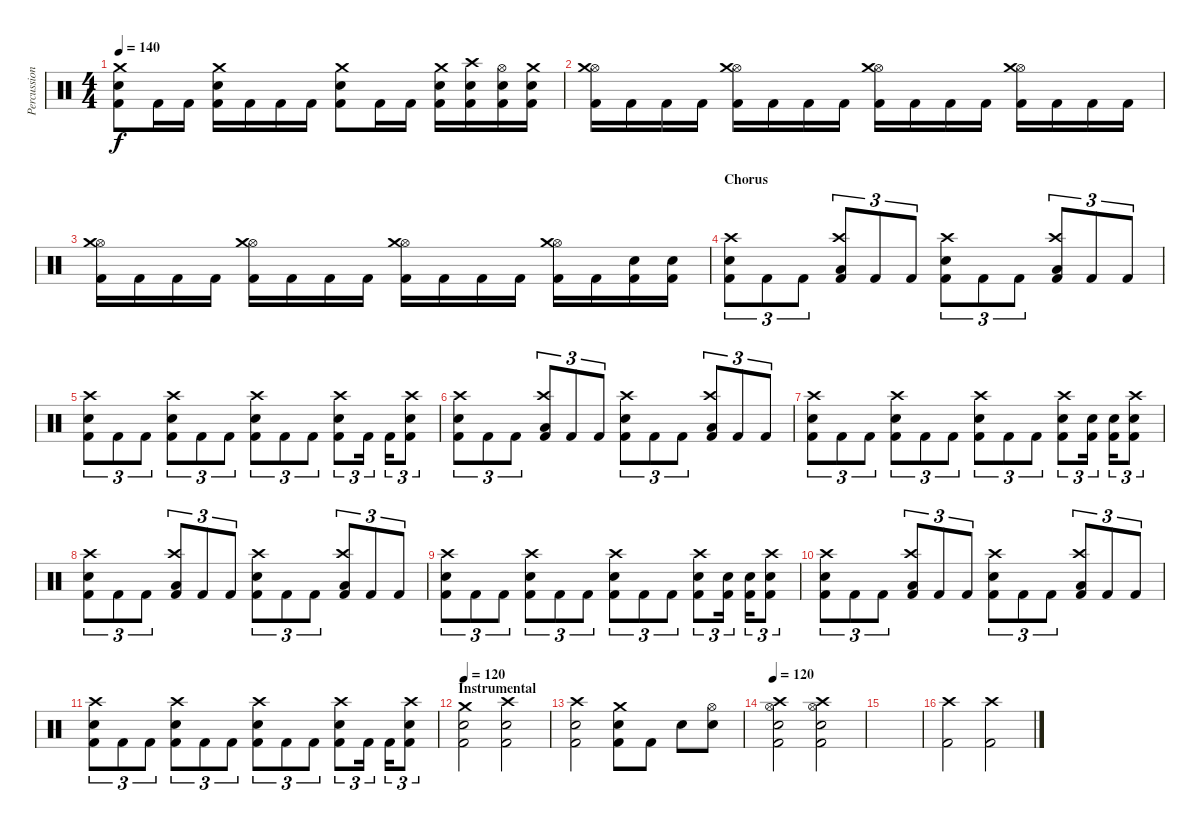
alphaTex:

\track ("Percussion" "Percussion") {instrument percussion}
\staff {score}
\articulation defaults
\ts (4 4)
\tempo 140
\clef neutral
\ks c
("Crash medium (hit)" "Snare (hit) 2" "Kick (hit) 2").8{dy f} "Kick (hit) 2".16 "Kick (hit) 2".16 ("Crash medium (hit)" "Snare (hit) 2" "Kick (hit) 2").16 "Kick (hit) 2".16 "Kick (hit) 2".16 "Kick (hit) 2".16 ("Crash medium (hit)" "Snare (hit) 2" "Kick (hit) 2").8 "Kick (hit) 2".16 "Kick (hit) 2".16 ("Crash medium (hit)" "Snare (hit) 2" "Kick (hit) 2").16 ("Crash high (hit)" "Snare (hit) 2" "Kick (hit) 2").16 ("Hi-Hat (open)" "Snare (hit) 2" "Kick (hit) 2").16 ("Crash medium (hit)" "Snare (hit) 2" "Kick (hit) 2").16 |
("Hi-Hat (open)" "Crash medium (hit)" "Kick (hit) 2").16 "Kick (hit) 2".16 "Kick (hit) 2".16 "Kick (hit) 2".16 ("Hi-Hat (open)" "Crash medium (hit)" "Kick (hit) 2").16 "Kick (hit) 2".16 "Kick (hit) 2".16 "Kick (hit) 2".16 ("Hi-Hat (open)" "Crash medium (hit)" "Kick (hit) 2").16 "Kick (hit) 2".16 "Kick (hit) 2".16 "Kick (hit) 2".16 ("Hi-Hat (open)" "Crash medium (hit)" "Kick (hit) 2").16 "Kick (hit) 2".16 "Kick (hit) 2".16 "Kick (hit) 2".16 |
("Hi-Hat (open)" "Crash medium (hit)" "Kick (hit) 2").16 "Kick (hit) 2".16 "Kick (hit) 2".16 "Kick (hit) 2".16 ("Hi-Hat (open)" "Crash medium (hit)" "Kick (hit) 2").16 "Kick (hit) 2".16 "Kick (hit) 2".16 "Kick (hit) 2".16 ("Hi-Hat (open)" "Crash medium (hit)" "Kick (hit) 2").16 "Kick (hit) 2".16 "Kick (hit) 2".16 "Kick (hit) 2".16 ("Hi-Hat (open)" "Crash medium (hit)" "Kick (hit) 2").16 "Kick (hit) 2".16 ("Snare (hit) 2" "Kick (hit) 2").16 ("Snare (hit) 2" "Kick (hit) 2").16 |
\section ("" "Chorus")
("Crash high (hit)" "Snare (hit) 2" "Kick (hit) 2").8{tu (3 2)} "Kick (hit) 2".8{tu (3 2)} "Kick (hit) 2".8{tu (3 2)} ("Crash high (hit)" "Low Floor Tom (hit)" "Kick (hit) 2").8{tu (3 2)} "Kick (hit) 2".8{tu (3 2)} "Kick (hit) 2".8{tu (3 2)} ("Crash high (hit)" "Snare (hit) 2" "Kick (hit) 2").8{tu (3 2)} "Kick (hit) 2".8{tu (3 2)} "Kick (hit) 2".8{tu (3 2)} ("Crash high (hit)" "Low Floor Tom (hit)" "Kick (hit) 2").8{tu (3 2)} "Kick (hit) 2".8{tu (3 2)} "Kick (hit) 2".8{tu (3 2)} |
("Crash high (hit)" "Snare (hit) 2" "Kick (hit) 2").8{tu (3 2)} "Kick (hit) 2".8{tu (3 2)} "Kick (hit) 2".8{tu (3 2)} ("Crash high (hit)" "Snare (hit) 2" "Kick (hit) 2").8{tu (3 2)} "Kick (hit) 2".8{tu (3 2)} "Kick (hit) 2".8{tu (3 2)} ("Crash high (hit)" "Snare (hit) 2" "Kick (hit) 2").8{tu (3 2)} "Kick (hit) 2".8{tu (3 2)} "Kick (hit) 2".8{tu (3 2)} ("Crash high (hit)" "Snare (hit) 2" "Kick (hit) 2").8{tu (3 2)} "Kick (hit) 2".16{tu (3 2)} "Kick (hit) 2".16{tu (3 2)} ("Crash high (hit)" "Snare (hit) 2" "Kick (hit) 2").8{tu (3 2)} |
("Crash high (hit)" "Snare (hit) 2" "Kick (hit) 2").8{tu (3 2)} "Kick (hit) 2".8{tu (3 2)} "Kick (hit) 2".8{tu (3 2)} ("Crash high (hit)" "Low Floor Tom (hit)" "Kick (hit) 2").8{tu (3 2)} "Kick (hit) 2".8{tu (3 2)} "Kick (hit) 2".8{tu (3 2)} ("Crash high (hit)" "Snare (hit) 2" "Kick (hit) 2").8{tu (3 2)} "Kick (hit) 2".8{tu (3 2)} "Kick (hit) 2".8{tu (3 2)} ("Crash high (hit)" "Low Floor Tom (hit)" "Kick (hit) 2").8{tu (3 2)} "Kick (hit) 2".8{tu (3 2)} "Kick (hit) 2".8{tu (3 2)} |
("Crash high (hit)" "Snare (hit) 2" "Kick (hit) 2").8{tu (3 2)} "Kick (hit) 2".8{tu (3 2)} "Kick (hit) 2".8{tu (3 2)} ("Crash high (hit)" "Snare (hit) 2" "Kick (hit) 2").8{tu (3 2)} "Kick (hit) 2".8{tu (3 2)} "Kick (hit) 2".8{tu (3 2)} ("Crash high (hit)" "Snare (hit) 2" "Kick (hit) 2").8{tu (3 2)} "Kick (hit) 2".8{tu (3 2)} "Kick (hit) 2".8{tu (3 2)} ("Crash high (hit)" "Snare (hit) 2" "Kick (hit) 2").8{tu (3 2)} ("Snare (hit) 2" "Kick (hit) 2").16{tu (3 2)} ("Snare (hit) 2" "Kick (hit) 2").16{tu (3 2)} ("Crash high (hit)" "Snare (hit) 2" "Kick (hit) 2").8{tu (3 2)} |
("Crash high (hit)" "Snare (hit) 2" "Kick (hit) 2").8{tu (3 2)} "Kick (hit) 2".8{tu (3 2)} "Kick (hit) 2".8{tu (3 2)} ("Crash high (hit)" "Low Floor Tom (hit)" "Kick (hit) 2").8{tu (3 2)} "Kick (hit) 2".8{tu (3 2)} "Kick (hit) 2".8{tu (3 2)} ("Crash high (hit)" "Snare (hit) 2" "Kick (hit) 2").8{tu (3 2)} "Kick (hit) 2".8{tu (3 2)} "Kick (hit) 2".8{tu (3 2)} ("Crash high (hit)" "Low Floor Tom (hit)" "Kick (hit) 2").8{tu (3 2)} "Kick (hit) 2".8{tu (3 2)} "Kick (hit) 2".8{tu (3 2)} |
("Crash high (hit)" "Snare (hit) 2" "Kick (hit) 2").8{tu (3 2)} "Kick (hit) 2".8{tu (3 2)} "Kick (hit) 2".8{tu (3 2)} ("Crash high (hit)" "Snare (hit) 2" "Kick (hit) 2").8{tu (3 2)} "Kick (hit) 2".8{tu (3 2)} "Kick (hit) 2".8{tu (3 2)} ("Crash high (hit)" "Snare (hit) 2" "Kick (hit) 2").8{tu (3 2)} "Kick (hit) 2".8{tu (3 2)} "Kick (hit) 2".8{tu (3 2)} ("Crash high (hit)" "Snare (hit) 2" "Kick (hit) 2").8{tu (3 2)} ("Snare (hit) 2" "Kick (hit) 2").16{tu (3 2)} ("Snare (hit) 2" "Kick (hit) 2").16{tu (3 2)} ("Crash high (hit)" "Snare (hit) 2" "Kick (hit) 2").8{tu (3 2)} |
("Crash high (hit)" "Snare (hit) 2" "Kick (hit) 2").8{tu (3 2)} "Kick (hit) 2".8{tu (3 2)} "Kick (hit) 2".8{tu (3 2)} ("Crash high (hit)" "Low Floor Tom (hit)" "Kick (hit) 2").8{tu (3 2)} "Kick (hit) 2".8{tu (3 2)} "Kick (hit) 2".8{tu (3 2)} ("Crash high (hit)" "Snare (hit) 2" "Kick (hit) 2").8{tu (3 2)} "Kick (hit) 2".8{tu (3 2)} "Kick (hit) 2".8{tu (3 2)} ("Crash high (hit)" "Low Floor Tom (hit)" "Kick (hit) 2").8{tu (3 2)} "Kick (hit) 2".8{tu (3 2)} "Kick (hit) 2".8{tu (3 2)} |
("Crash high (hit)" "Snare (hit) 2" "Kick (hit) 2").8{tu (3 2)} "Kick (hit) 2".8{tu (3 2)} "Kick (hit) 2".8{tu (3 2)} ("Crash high (hit)" "Snare (hit) 2" "Kick (hit) 2").8{tu (3 2)} "Kick (hit) 2".8{tu (3 2)} "Kick (hit) 2".8{tu (3 2)} ("Crash high (hit)" "Snare (hit) 2" "Kick (hit) 2").8{tu (3 2)} "Kick (hit) 2".8{tu (3 2)} "Kick (hit) 2".8{tu (3 2)} ("Crash high (hit)" "Snare (hit) 2" "Kick (hit) 2").8{tu (3 2)} "Kick (hit) 2".16{tu (3 2)} "Kick (hit) 2".16{tu (3 2)} ("Crash high (hit)" "Snare (hit) 2" "Kick (hit) 2").8{tu (3 2)} |
\section ("" "Instrumental ")
\tempo 120
("Crash medium (hit)" "Snare (hit) 2" "Kick (hit) 2").2 ("Crash high (hit)" "Snare (hit) 2" "Kick (hit) 2").2 |
("Crash high (hit)" "Snare (hit) 2" "Kick (hit) 2").2 ("Crash medium (hit)" "Snare (hit) 2" "Kick (hit) 2").8 "Kick (hit) 2".8 "Snare (hit) 2".8 ("Hi-Hat (open)" "Snare (hit) 2").8 |
\tempo 120
("Crash high (hit)" "Hi-Hat (open)" "Snare (hit) 2" "Kick (hit) 2").2 ("Crash high (hit)" "Hi-Hat (open)" "Snare (hit) 2" "Kick (hit) 2").2 |
|
("Crash high (hit)" "Kick (hit) 2").2 ("Crash high (hit)" "Kick (hit) 2").2
